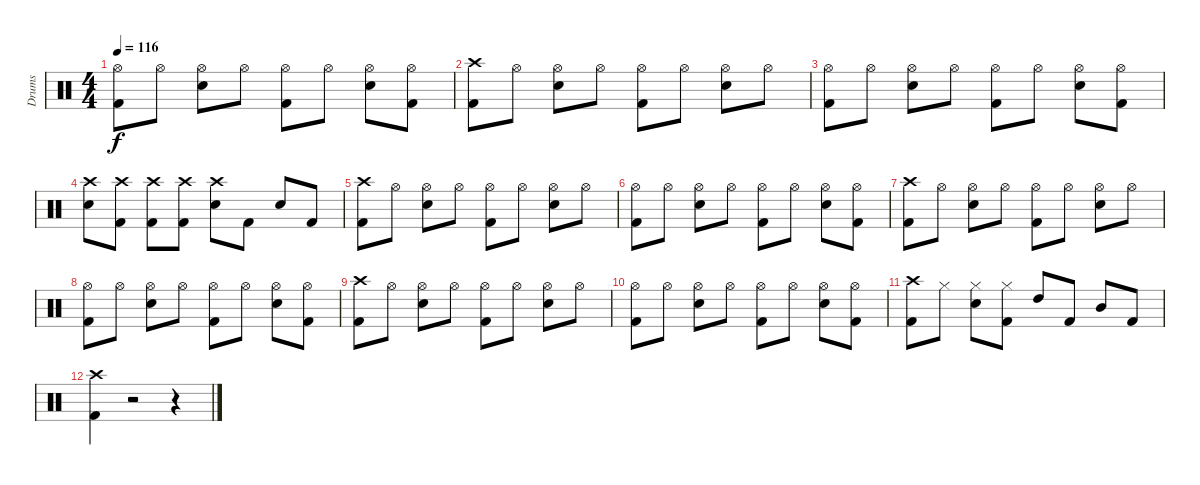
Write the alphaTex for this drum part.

\track ("Drums" "Drums") {instrument percussion}
\staff {score}
\articulation defaults
\ts (4 4)
\tempo 116
\clef neutral
\ks c
("Hi-Hat (open)" "Kick (hit) 2").8{dy f} "Hi-Hat (open)".8 ("Hi-Hat (open)" "Snare (hit) 2").8 "Hi-Hat (open)".8 ("Hi-Hat (open)" "Kick (hit) 2").8 "Hi-Hat (open)".8 ("Hi-Hat (open)" "Snare (hit) 2").8 ("Hi-Hat (open)" "Kick (hit) 2").8 |
("Crash high (hit)" "Kick (hit) 2").8 "Hi-Hat (open)".8 ("Hi-Hat (open)" "Snare (hit) 2").8 "Hi-Hat (open)".8 ("Hi-Hat (open)" "Kick (hit) 2").8 "Hi-Hat (open)".8 ("Hi-Hat (open)" "Snare (hit) 2").8 "Hi-Hat (open)".8 |
("Hi-Hat (open)" "Kick (hit) 2").8 "Hi-Hat (open)".8 ("Hi-Hat (open)" "Snare (hit) 2").8 "Hi-Hat (open)".8 ("Hi-Hat (open)" "Kick (hit) 2").8 "Hi-Hat (open)".8 ("Hi-Hat (open)" "Snare (hit) 2").8 ("Hi-Hat (open)" "Kick (hit) 2").8 |
("Crash high (hit)" "Snare (hit) 2").8 ("Crash high (hit)" "Kick (hit) 2").8 ("Crash high (hit)" "Kick (hit) 2").8 ("Crash high (hit)" "Kick (hit) 2").8 ("Crash high (hit)" "Snare (hit) 2").8 "Kick (hit) 2".8 "Snare (hit) 2".8 "Kick (hit) 2".8 |
("Crash high (hit)" "Kick (hit) 2").8 "Hi-Hat (open)".8 ("Hi-Hat (open)" "Snare (hit) 2").8 "Hi-Hat (open)".8 ("Hi-Hat (open)" "Kick (hit) 2").8 "Hi-Hat (open)".8 ("Hi-Hat (open)" "Snare (hit) 2").8 "Hi-Hat (open)".8 |
("Hi-Hat (open)" "Kick (hit) 2").8 "Hi-Hat (open)".8 ("Hi-Hat (open)" "Snare (hit) 2").8 "Hi-Hat (open)".8 ("Hi-Hat (open)" "Kick (hit) 2").8 "Hi-Hat (open)".8 ("Hi-Hat (open)" "Snare (hit) 2").8 ("Hi-Hat (open)" "Kick (hit) 2").8 |
("Crash high (hit)" "Kick (hit) 2").8 "Hi-Hat (open)".8 ("Hi-Hat (open)" "Snare (hit) 2").8 "Hi-Hat (open)".8 ("Hi-Hat (open)" "Kick (hit) 2").8 "Hi-Hat (open)".8 ("Hi-Hat (open)" "Snare (hit) 2").8 "Hi-Hat (open)".8 |
("Hi-Hat (open)" "Kick (hit) 2").8 "Hi-Hat (open)".8 ("Hi-Hat (open)" "Snare (hit) 2").8 "Hi-Hat (open)".8 ("Hi-Hat (open)" "Kick (hit) 2").8 "Hi-Hat (open)".8 ("Hi-Hat (open)" "Snare (hit) 2").8 ("Hi-Hat (open)" "Kick (hit) 2").8 |
("Crash high (hit)" "Kick (hit) 2").8 "Hi-Hat (open)".8 ("Hi-Hat (open)" "Snare (hit) 2").8 "Hi-Hat (open)".8 ("Hi-Hat (open)" "Kick (hit) 2").8 "Hi-Hat (open)".8 ("Hi-Hat (open)" "Snare (hit) 2").8 "Hi-Hat (open)".8 |
("Hi-Hat (open)" "Kick (hit) 2").8 "Hi-Hat (open)".8 ("Hi-Hat (open)" "Snare (hit) 2").8 "Hi-Hat (open)".8 ("Hi-Hat (open)" "Kick (hit) 2").8 "Hi-Hat (open)".8 ("Hi-Hat (open)" "Snare (hit) 2").8 ("Hi-Hat (open)" "Kick (hit) 2").8 |
("Crash high (hit)" "Kick (hit) 2").8 "Hi-Hat (closed)".8 ("Hi-Hat (closed)" "Snare (hit) 2").8 ("Hi-Hat (closed)" "Kick (hit) 2").8 "High Tom (hit)".8 "Kick (hit) 2".8 "Mid Tom (hit)".8 "Kick (hit) 2".8 |
("Crash high (hit)" "Kick (hit) 2").4 r.2 r.4
